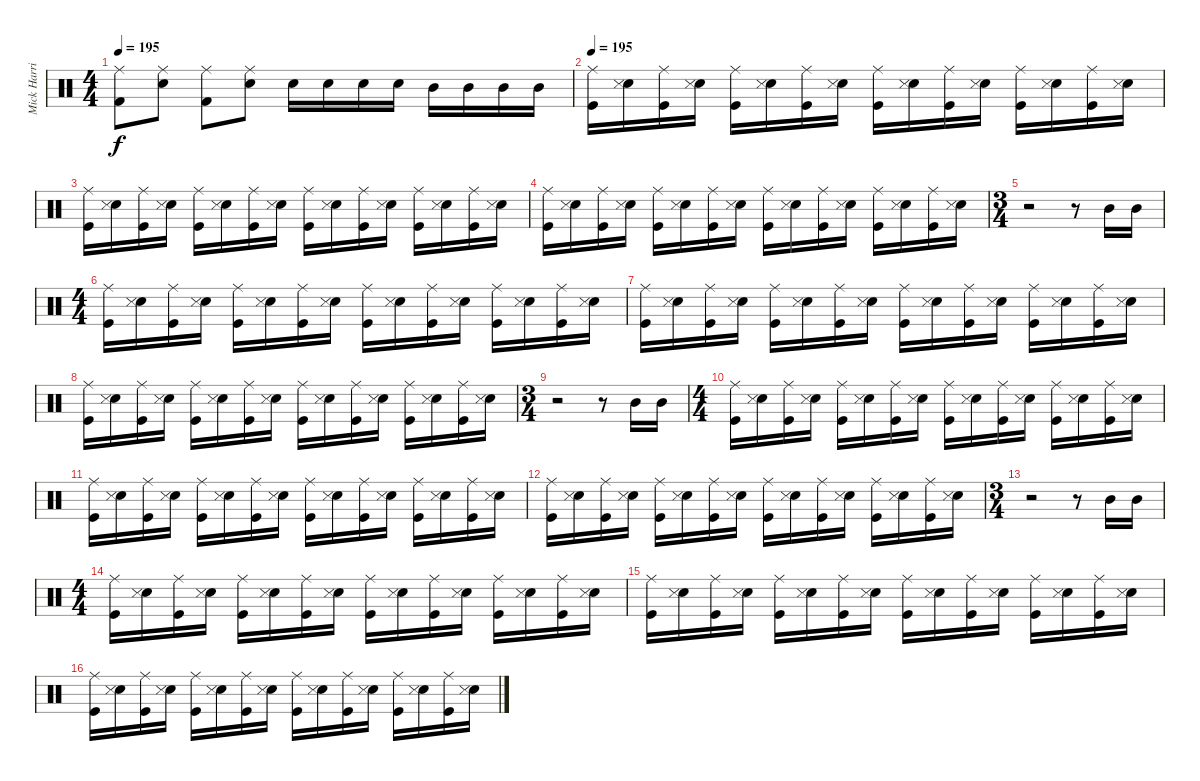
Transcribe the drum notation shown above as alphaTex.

\track ("Mick Harris (Drums)" "Mick Harri") {instrument percussion}
\staff {score}
\articulation defaults
\ts (4 4)
\tempo 195
\clef neutral
\ks c
("Kick (hit) 2" "Ride (middle)").8{dy f} ("Electric Snare (hit)" "Ride (middle)").8 ("Kick (hit) 2" "Ride (middle)").8 ("Electric Snare (hit)" "Ride (middle)").8 "Electric Snare (hit)".16 "Electric Snare (hit)".16 "Electric Snare (hit)".16 "Electric Snare (hit)".16 "Mid Tom (hit)".16 "Mid Tom (hit)".16 "Mid Tom (hit)".16 "Mid Tom (hit)".16 |
\tempo 195
("Kick (hit)" "Ride (middle)").16 ("Electric Snare (hit)" "Snare (side stick) 3").16 ("Kick (hit)" "Ride (middle)").16 ("Electric Snare (hit)" "Snare (side stick) 3").16 ("Kick (hit)" "Ride (middle)").16 ("Electric Snare (hit)" "Snare (side stick) 3").16 ("Kick (hit)" "Ride (middle)").16 ("Electric Snare (hit)" "Snare (side stick) 3").16 ("Kick (hit)" "Ride (middle)").16 ("Electric Snare (hit)" "Snare (side stick) 3").16 ("Kick (hit)" "Ride (middle)").16 ("Electric Snare (hit)" "Snare (side stick) 3").16 ("Kick (hit)" "Ride (middle)").16 ("Electric Snare (hit)" "Snare (side stick) 3").16 ("Kick (hit)" "Ride (middle)").16 ("Electric Snare (hit)" "Snare (side stick) 3").16 |
("Kick (hit)" "Ride (middle)").16 ("Electric Snare (hit)" "Snare (side stick) 3").16 ("Kick (hit)" "Ride (middle)").16 ("Electric Snare (hit)" "Snare (side stick) 3").16 ("Kick (hit)" "Ride (middle)").16 ("Electric Snare (hit)" "Snare (side stick) 3").16 ("Kick (hit)" "Ride (middle)").16 ("Electric Snare (hit)" "Snare (side stick) 3").16 ("Kick (hit)" "Ride (middle)").16 ("Electric Snare (hit)" "Snare (side stick) 3").16 ("Kick (hit)" "Ride (middle)").16 ("Electric Snare (hit)" "Snare (side stick) 3").16 ("Kick (hit)" "Ride (middle)").16 ("Electric Snare (hit)" "Snare (side stick) 3").16 ("Kick (hit)" "Ride (middle)").16 ("Electric Snare (hit)" "Snare (side stick) 3").16 |
("Kick (hit)" "Ride (middle)").16 ("Electric Snare (hit)" "Snare (side stick) 3").16 ("Kick (hit)" "Ride (middle)").16 ("Electric Snare (hit)" "Snare (side stick) 3").16 ("Kick (hit)" "Ride (middle)").16 ("Electric Snare (hit)" "Snare (side stick) 3").16 ("Kick (hit)" "Ride (middle)").16 ("Electric Snare (hit)" "Snare (side stick) 3").16 ("Kick (hit)" "Ride (middle)").16 ("Electric Snare (hit)" "Snare (side stick) 3").16 ("Kick (hit)" "Ride (middle)").16 ("Electric Snare (hit)" "Snare (side stick) 3").16 ("Kick (hit)" "Ride (middle)").16 ("Electric Snare (hit)" "Snare (side stick) 3").16 ("Kick (hit)" "Ride (middle)").16 ("Electric Snare (hit)" "Snare (side stick) 3").16 |
\ts (3 4)
r.2 r.8 "Mid Tom (hit)".16 "Mid Tom (hit)".16 |
\ts (4 4)
("Kick (hit)" "Ride (middle)").16 ("Electric Snare (hit)" "Snare (side stick) 3").16 ("Kick (hit)" "Ride (middle)").16 ("Electric Snare (hit)" "Snare (side stick) 3").16 ("Kick (hit)" "Ride (middle)").16 ("Electric Snare (hit)" "Snare (side stick) 3").16 ("Kick (hit)" "Ride (middle)").16 ("Electric Snare (hit)" "Snare (side stick) 3").16 ("Kick (hit)" "Ride (middle)").16 ("Electric Snare (hit)" "Snare (side stick) 3").16 ("Kick (hit)" "Ride (middle)").16 ("Electric Snare (hit)" "Snare (side stick) 3").16 ("Kick (hit)" "Ride (middle)").16 ("Electric Snare (hit)" "Snare (side stick) 3").16 ("Kick (hit)" "Ride (middle)").16 ("Electric Snare (hit)" "Snare (side stick) 3").16 |
("Kick (hit)" "Ride (middle)").16 ("Electric Snare (hit)" "Snare (side stick) 3").16 ("Kick (hit)" "Ride (middle)").16 ("Electric Snare (hit)" "Snare (side stick) 3").16 ("Kick (hit)" "Ride (middle)").16 ("Electric Snare (hit)" "Snare (side stick) 3").16 ("Kick (hit)" "Ride (middle)").16 ("Electric Snare (hit)" "Snare (side stick) 3").16 ("Kick (hit)" "Ride (middle)").16 ("Electric Snare (hit)" "Snare (side stick) 3").16 ("Kick (hit)" "Ride (middle)").16 ("Electric Snare (hit)" "Snare (side stick) 3").16 ("Kick (hit)" "Ride (middle)").16 ("Electric Snare (hit)" "Snare (side stick) 3").16 ("Kick (hit)" "Ride (middle)").16 ("Electric Snare (hit)" "Snare (side stick) 3").16 |
("Kick (hit)" "Ride (middle)").16 ("Electric Snare (hit)" "Snare (side stick) 3").16 ("Kick (hit)" "Ride (middle)").16 ("Electric Snare (hit)" "Snare (side stick) 3").16 ("Kick (hit)" "Ride (middle)").16 ("Electric Snare (hit)" "Snare (side stick) 3").16 ("Kick (hit)" "Ride (middle)").16 ("Electric Snare (hit)" "Snare (side stick) 3").16 ("Kick (hit)" "Ride (middle)").16 ("Electric Snare (hit)" "Snare (side stick) 3").16 ("Kick (hit)" "Ride (middle)").16 ("Electric Snare (hit)" "Snare (side stick) 3").16 ("Kick (hit)" "Ride (middle)").16 ("Electric Snare (hit)" "Snare (side stick) 3").16 ("Kick (hit)" "Ride (middle)").16 ("Electric Snare (hit)" "Snare (side stick) 3").16 |
\ts (3 4)
r.2 r.8 "Mid Tom (hit)".16 "Mid Tom (hit)".16 |
\ts (4 4)
("Kick (hit)" "Ride (middle)").16 ("Electric Snare (hit)" "Snare (side stick) 3").16 ("Kick (hit)" "Ride (middle)").16 ("Electric Snare (hit)" "Snare (side stick) 3").16 ("Kick (hit)" "Ride (middle)").16 ("Electric Snare (hit)" "Snare (side stick) 3").16 ("Kick (hit)" "Ride (middle)").16 ("Electric Snare (hit)" "Snare (side stick) 3").16 ("Kick (hit)" "Ride (middle)").16 ("Electric Snare (hit)" "Snare (side stick) 3").16 ("Kick (hit)" "Ride (middle)").16 ("Electric Snare (hit)" "Snare (side stick) 3").16 ("Kick (hit)" "Ride (middle)").16 ("Electric Snare (hit)" "Snare (side stick) 3").16 ("Kick (hit)" "Ride (middle)").16 ("Electric Snare (hit)" "Snare (side stick) 3").16 |
("Kick (hit)" "Ride (middle)").16 ("Electric Snare (hit)" "Snare (side stick) 3").16 ("Kick (hit)" "Ride (middle)").16 ("Electric Snare (hit)" "Snare (side stick) 3").16 ("Kick (hit)" "Ride (middle)").16 ("Electric Snare (hit)" "Snare (side stick) 3").16 ("Kick (hit)" "Ride (middle)").16 ("Electric Snare (hit)" "Snare (side stick) 3").16 ("Kick (hit)" "Ride (middle)").16 ("Electric Snare (hit)" "Snare (side stick) 3").16 ("Kick (hit)" "Ride (middle)").16 ("Electric Snare (hit)" "Snare (side stick) 3").16 ("Kick (hit)" "Ride (middle)").16 ("Electric Snare (hit)" "Snare (side stick) 3").16 ("Kick (hit)" "Ride (middle)").16 ("Electric Snare (hit)" "Snare (side stick) 3").16 |
("Kick (hit)" "Ride (middle)").16 ("Electric Snare (hit)" "Snare (side stick) 3").16 ("Kick (hit)" "Ride (middle)").16 ("Electric Snare (hit)" "Snare (side stick) 3").16 ("Kick (hit)" "Ride (middle)").16 ("Electric Snare (hit)" "Snare (side stick) 3").16 ("Kick (hit)" "Ride (middle)").16 ("Electric Snare (hit)" "Snare (side stick) 3").16 ("Kick (hit)" "Ride (middle)").16 ("Electric Snare (hit)" "Snare (side stick) 3").16 ("Kick (hit)" "Ride (middle)").16 ("Electric Snare (hit)" "Snare (side stick) 3").16 ("Kick (hit)" "Ride (middle)").16 ("Electric Snare (hit)" "Snare (side stick) 3").16 ("Kick (hit)" "Ride (middle)").16 ("Electric Snare (hit)" "Snare (side stick) 3").16 |
\ts (3 4)
r.2 r.8 "Mid Tom (hit)".16 "Mid Tom (hit)".16 |
\ts (4 4)
("Kick (hit)" "Ride (middle)").16 ("Electric Snare (hit)" "Snare (side stick) 3").16 ("Kick (hit)" "Ride (middle)").16 ("Electric Snare (hit)" "Snare (side stick) 3").16 ("Kick (hit)" "Ride (middle)").16 ("Electric Snare (hit)" "Snare (side stick) 3").16 ("Kick (hit)" "Ride (middle)").16 ("Electric Snare (hit)" "Snare (side stick) 3").16 ("Kick (hit)" "Ride (middle)").16 ("Electric Snare (hit)" "Snare (side stick) 3").16 ("Kick (hit)" "Ride (middle)").16 ("Electric Snare (hit)" "Snare (side stick) 3").16 ("Kick (hit)" "Ride (middle)").16 ("Electric Snare (hit)" "Snare (side stick) 3").16 ("Kick (hit)" "Ride (middle)").16 ("Electric Snare (hit)" "Snare (side stick) 3").16 |
("Kick (hit)" "Ride (middle)").16 ("Electric Snare (hit)" "Snare (side stick) 3").16 ("Kick (hit)" "Ride (middle)").16 ("Electric Snare (hit)" "Snare (side stick) 3").16 ("Kick (hit)" "Ride (middle)").16 ("Electric Snare (hit)" "Snare (side stick) 3").16 ("Kick (hit)" "Ride (middle)").16 ("Electric Snare (hit)" "Snare (side stick) 3").16 ("Kick (hit)" "Ride (middle)").16 ("Electric Snare (hit)" "Snare (side stick) 3").16 ("Kick (hit)" "Ride (middle)").16 ("Electric Snare (hit)" "Snare (side stick) 3").16 ("Kick (hit)" "Ride (middle)").16 ("Electric Snare (hit)" "Snare (side stick) 3").16 ("Kick (hit)" "Ride (middle)").16 ("Electric Snare (hit)" "Snare (side stick) 3").16 |
("Kick (hit)" "Ride (middle)").16 ("Electric Snare (hit)" "Snare (side stick) 3").16 ("Kick (hit)" "Ride (middle)").16 ("Electric Snare (hit)" "Snare (side stick) 3").16 ("Kick (hit)" "Ride (middle)").16 ("Electric Snare (hit)" "Snare (side stick) 3").16 ("Kick (hit)" "Ride (middle)").16 ("Electric Snare (hit)" "Snare (side stick) 3").16 ("Kick (hit)" "Ride (middle)").16 ("Electric Snare (hit)" "Snare (side stick) 3").16 ("Kick (hit)" "Ride (middle)").16 ("Electric Snare (hit)" "Snare (side stick) 3").16 ("Kick (hit)" "Ride (middle)").16 ("Electric Snare (hit)" "Snare (side stick) 3").16 ("Kick (hit)" "Ride (middle)").16 ("Electric Snare (hit)" "Snare (side stick) 3").16
